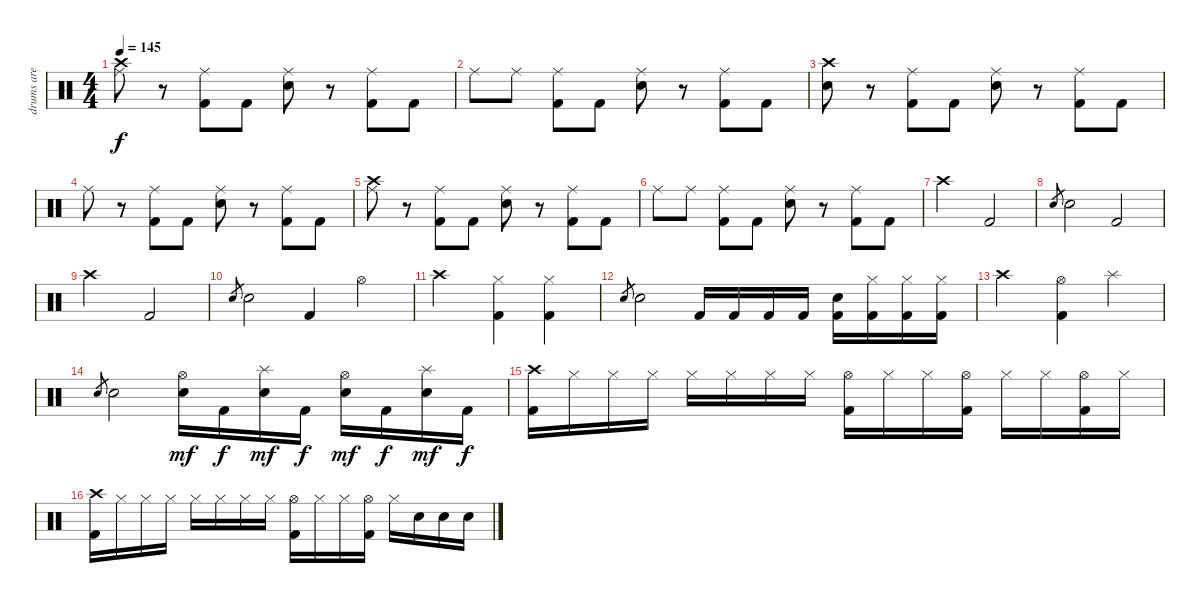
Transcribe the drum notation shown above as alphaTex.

\track ("drums are cool   >.<" "drums are ") {instrument percussion}
\staff {score}
\articulation defaults
\ts (4 4)
\tempo 145
\clef neutral
\ks c
("Crash high (hit)" "Ride (middle)").8{dy f} r.8 ("Ride (middle)" "Kick (hit) 2").8 "Kick (hit) 2".8 ("Ride (middle)" "Snare (hit) 2").8 r.8 ("Ride (middle)" "Kick (hit) 2").8 "Kick (hit) 2".8 |
"Ride (middle)".8 "Ride (middle)".8 ("Ride (middle)" "Kick (hit) 2").8 "Kick (hit) 2".8 ("Ride (middle)" "Snare (hit) 2").8 r.8 ("Ride (middle)" "Kick (hit) 2").8 "Kick (hit) 2".8 |
("Crash high (hit)" "Snare (hit) 2").8 r.8 ("Ride (middle)" "Kick (hit) 2").8 "Kick (hit) 2".8 ("Ride (middle)" "Snare (hit) 2").8 r.8 ("Ride (middle)" "Kick (hit) 2").8 "Kick (hit) 2".8 |
"Ride (middle)".8 r.8 ("Ride (middle)" "Kick (hit) 2").8 "Kick (hit) 2".8 ("Ride (middle)" "Snare (hit) 2").8 r.8 ("Ride (middle)" "Kick (hit) 2").8 "Kick (hit) 2".8 |
("Crash high (hit)" "Ride (middle)").8 r.8 ("Ride (middle)" "Kick (hit) 2").8 "Kick (hit) 2".8 ("Ride (middle)" "Snare (hit) 2").8 r.8 ("Ride (middle)" "Kick (hit) 2").8 "Kick (hit) 2".8 |
"Ride (middle)".8 "Ride (middle)".8 ("Ride (middle)" "Kick (hit) 2").8 "Kick (hit) 2".8 ("Ride (middle)" "Snare (hit) 2").8 r.8 ("Ride (middle)" "Kick (hit) 2").8 "Kick (hit) 2".8 |
"Crash high (hit)".2 "Kick (hit) 2".2 |
"Snare (hit) 2".8{gr} "Snare (hit) 2".2 "Kick (hit) 2".2 |
"Crash high (hit)".2 "Kick (hit) 2".2 |
"Snare (hit) 2".8{gr} "Snare (hit) 2".2 "Kick (hit) 2".4 "Hi-Hat (open)".4 |
"Crash high (hit)".2 ("Hi-Hat (closed)" "Kick (hit) 2").4 ("Hi-Hat (closed)" "Kick (hit) 2").4 |
"Snare (hit) 2".8{gr} "Snare (hit) 2".2 "Kick (hit) 2".16 "Kick (hit) 2".16 "Kick (hit) 2".16 "Kick (hit) 2".16 ("Snare (hit) 2" "Kick (hit) 2").16 ("Hi-Hat (closed)" "Kick (hit) 2").16 ("Hi-Hat (closed)" "Kick (hit) 2").16 ("Hi-Hat (closed)" "Kick (hit) 2").16 |
"Crash high (hit)".2 ("Hi-Hat (open)" "Kick (hit) 2").4 "Splash (hit)".4 |
"Snare (hit) 2".8{gr} "Snare (hit) 2".2 ("Hi-Hat (open)" "Snare (hit) 2").16{dy mf} "Kick (hit) 2".16{dy f} ("Splash (hit)" "Snare (hit) 2").16{dy mf} "Kick (hit) 2".16{dy f} ("Hi-Hat (open)" "Snare (hit) 2").16{dy mf} "Kick (hit) 2".16{dy f} ("Splash (hit)" "Snare (hit) 2").16{dy mf} "Kick (hit) 2".16{dy f} |
("Crash high (hit)" "Kick (hit) 2").16 "Hi-Hat (closed)".16 "Hi-Hat (closed)".16 "Hi-Hat (closed)".16 "Hi-Hat (closed)".16 "Hi-Hat (closed)".16 "Hi-Hat (closed)".16 "Hi-Hat (closed)".16 ("Hi-Hat (open)" "Kick (hit) 2").16 "Hi-Hat (closed)".16 "Hi-Hat (closed)".16 ("Hi-Hat (open)" "Kick (hit) 2").16 "Hi-Hat (closed)".16 "Hi-Hat (closed)".16 ("Hi-Hat (open)" "Kick (hit) 2").16 "Hi-Hat (closed)".16 |
("Crash high (hit)" "Kick (hit) 2").16 "Hi-Hat (closed)".16 "Hi-Hat (closed)".16 "Hi-Hat (closed)".16 "Hi-Hat (closed)".16 "Hi-Hat (closed)".16 "Hi-Hat (closed)".16 "Hi-Hat (closed)".16 ("Hi-Hat (open)" "Kick (hit) 2").16 "Hi-Hat (closed)".16 "Hi-Hat (closed)".16 ("Hi-Hat (open)" "Kick (hit) 2").16 "Hi-Hat (closed)".16 "Snare (hit) 2".16 "Snare (hit) 2".16 "Snare (hit) 2".16
